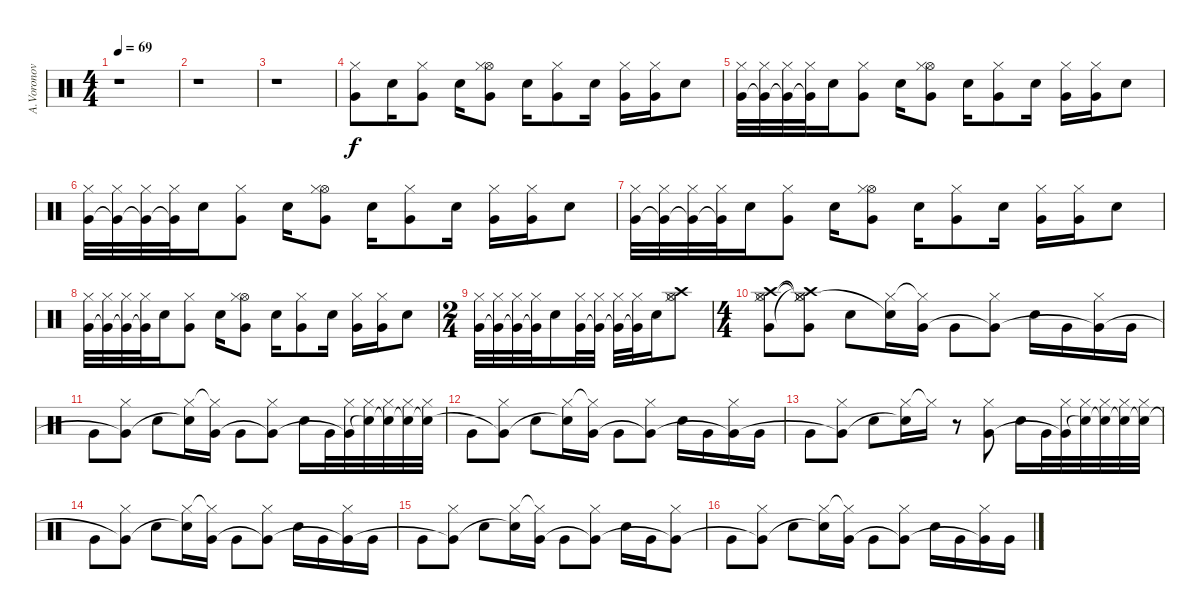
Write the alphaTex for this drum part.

\track ("A.Voronov - Drumzzz" "A.Voronov ") {instrument percussion}
\staff {score}
\articulation defaults
\ts (4 4)
\tempo 69
\clef neutral
\ks c
r.1{dy f} |
r.1 |
r.1 |
("Hi-Hat (closed)" "Very Low Tom (hit)").8 "Electric Snare (hit)".16 ("Hi-Hat (closed)" "Very Low Tom (hit)").8 "Electric Snare (hit)".16 ("Hi-Hat (open)" "Hi-Hat (closed)" "Very Low Tom (hit)").8 "Electric Snare (hit)".16 ("Hi-Hat (closed)" "Very Low Tom (hit)").8 "Electric Snare (hit)".16 ("Hi-Hat (closed)" "Very Low Tom (hit)").16 ("Hi-Hat (closed)" "Very Low Tom (hit)").16 "Electric Snare (hit)".8 |
("Hi-Hat (closed)" "Very Low Tom (hit)").32 ("Hi-Hat (closed)" "Very Low Tom (hit)"{t}).32 ("Hi-Hat (closed)" "Very Low Tom (hit)"{t}).32 ("Hi-Hat (closed)" "Very Low Tom (hit)"{t}).32 "Electric Snare (hit)".16 ("Hi-Hat (closed)" "Very Low Tom (hit)").8 "Electric Snare (hit)".16 ("Hi-Hat (open)" "Hi-Hat (closed)" "Very Low Tom (hit)").8 "Electric Snare (hit)".16 ("Hi-Hat (closed)" "Very Low Tom (hit)").8 "Electric Snare (hit)".16 ("Hi-Hat (closed)" "Very Low Tom (hit)").16 ("Hi-Hat (closed)" "Very Low Tom (hit)").16 "Electric Snare (hit)".8 |
("Hi-Hat (closed)" "Very Low Tom (hit)").32 ("Hi-Hat (closed)" "Very Low Tom (hit)"{t}).32 ("Hi-Hat (closed)" "Very Low Tom (hit)"{t}).32 ("Hi-Hat (closed)" "Very Low Tom (hit)"{t}).32 "Electric Snare (hit)".16 ("Hi-Hat (closed)" "Very Low Tom (hit)").8 "Electric Snare (hit)".16 ("Hi-Hat (open)" "Hi-Hat (closed)" "Very Low Tom (hit)").8 "Electric Snare (hit)".16 ("Hi-Hat (closed)" "Very Low Tom (hit)").8 "Electric Snare (hit)".16 ("Hi-Hat (closed)" "Very Low Tom (hit)").16 ("Hi-Hat (closed)" "Very Low Tom (hit)").16 "Electric Snare (hit)".8 |
("Hi-Hat (closed)" "Very Low Tom (hit)").32 ("Hi-Hat (closed)" "Very Low Tom (hit)"{t}).32 ("Hi-Hat (closed)" "Very Low Tom (hit)"{t}).32 ("Hi-Hat (closed)" "Very Low Tom (hit)"{t}).32 "Electric Snare (hit)".16 ("Hi-Hat (closed)" "Very Low Tom (hit)").8 "Electric Snare (hit)".16 ("Hi-Hat (open)" "Hi-Hat (closed)" "Very Low Tom (hit)").8 "Electric Snare (hit)".16 ("Hi-Hat (closed)" "Very Low Tom (hit)").8 "Electric Snare (hit)".16 ("Hi-Hat (closed)" "Very Low Tom (hit)").16 ("Hi-Hat (closed)" "Very Low Tom (hit)").16 "Electric Snare (hit)".8 |
("Hi-Hat (closed)" "Very Low Tom (hit)").32 ("Hi-Hat (closed)" "Very Low Tom (hit)"{t}).32 ("Hi-Hat (closed)" "Very Low Tom (hit)"{t}).32 ("Hi-Hat (closed)" "Very Low Tom (hit)"{t}).32 "Electric Snare (hit)".16 ("Hi-Hat (closed)" "Very Low Tom (hit)").8 "Electric Snare (hit)".16 ("Hi-Hat (open)" "Hi-Hat (closed)" "Very Low Tom (hit)").8 "Electric Snare (hit)".16 ("Hi-Hat (closed)" "Very Low Tom (hit)").8 "Electric Snare (hit)".16 ("Hi-Hat (closed)" "Very Low Tom (hit)").16 ("Hi-Hat (closed)" "Very Low Tom (hit)").16 "Electric Snare (hit)".8 |
\ts (2 4)
("Hi-Hat (closed)" "Very Low Tom (hit)").32 ("Hi-Hat (closed)" "Very Low Tom (hit)"{t}).32 ("Hi-Hat (closed)" "Very Low Tom (hit)"{t}).32 ("Hi-Hat (closed)" "Very Low Tom (hit)"{t}).32 "Electric Snare (hit)".16 ("Hi-Hat (closed)" "Very Low Tom (hit)").32 ("Hi-Hat (closed)" "Very Low Tom (hit)"{t}).32 ("Hi-Hat (closed)" "Very Low Tom (hit)"{t}).32 ("Hi-Hat (closed)" "Very Low Tom (hit)"{t}).32 "Electric Snare (hit)".16 ("Hi-Hat (open)" "Hi-Hat (closed)" "Crash high (hit)").8 |
\ts (4 4)
("Hi-Hat (open)" "Hi-Hat (closed)" "Crash high (hit)" "Very Low Tom (hit)").8 ("Hi-Hat (closed)" "Hi-Hat (open)"{t} "Hi-Hat (closed)"{t} "Crash high (hit)"{t} "Very Low Tom (hit)").8 "Electric Snare (hit)".8 ("Hi-Hat (closed)" "Electric Snare (hit)"{t}).16 ("Hi-Hat (closed)"{t} "Very Low Tom (hit)").16 "Very Low Tom (hit)".8 ("Hi-Hat (closed)" "Very Low Tom (hit)"{t}).8 "Electric Snare (hit)".16 "Very Low Tom (hit)".16 ("Hi-Hat (closed)" "Very Low Tom (hit)"{t}).16 "Very Low Tom (hit)".16 |
"Very Low Tom (hit)".8 ("Hi-Hat (closed)" "Very Low Tom (hit)"{t}).8 "Electric Snare (hit)".8 ("Hi-Hat (closed)" "Electric Snare (hit)"{t}).16 ("Hi-Hat (closed)"{t} "Very Low Tom (hit)").16 "Very Low Tom (hit)".8 ("Hi-Hat (closed)" "Very Low Tom (hit)"{t}).8 "Electric Snare (hit)".16 "Very Low Tom (hit)".32 ("Hi-Hat (closed)" "Very Low Tom (hit)"{t}).32 ("Hi-Hat (closed)" "Snare (hit)"{t}).32 ("Hi-Hat (closed)" "Snare (hit)"{t}).32 ("Hi-Hat (closed)" "Snare (hit)"{t}).32 ("Hi-Hat (closed)" "Snare (hit)"{t}).32 |
"Very Low Tom (hit)".8 ("Hi-Hat (closed)" "Very Low Tom (hit)"{t}).8 "Electric Snare (hit)".8 ("Hi-Hat (closed)" "Electric Snare (hit)"{t}).16 ("Hi-Hat (closed)"{t} "Very Low Tom (hit)").16 "Very Low Tom (hit)".8 ("Hi-Hat (closed)" "Very Low Tom (hit)"{t}).8 "Electric Snare (hit)".16 "Very Low Tom (hit)".16 ("Hi-Hat (closed)" "Very Low Tom (hit)"{t}).16 "Very Low Tom (hit)".16 |
"Very Low Tom (hit)".8 ("Hi-Hat (closed)" "Very Low Tom (hit)"{t}).8 "Electric Snare (hit)".8 ("Hi-Hat (closed)" "Electric Snare (hit)"{t}).16 "Hi-Hat (closed)"{t}.16 r.8 ("Hi-Hat (closed)" "Very Low Tom (hit)").8 "Electric Snare (hit)".16 "Very Low Tom (hit)".32 ("Hi-Hat (closed)" "Very Low Tom (hit)"{t}).32 ("Hi-Hat (closed)" "Snare (hit)"{t}).32 ("Hi-Hat (closed)" "Snare (hit)"{t}).32 ("Hi-Hat (closed)" "Snare (hit)"{t}).32 ("Hi-Hat (closed)" "Snare (hit)"{t}).32 |
"Very Low Tom (hit)".8 ("Hi-Hat (closed)" "Very Low Tom (hit)"{t}).8 "Electric Snare (hit)".8 ("Hi-Hat (closed)" "Electric Snare (hit)"{t}).16 ("Hi-Hat (closed)"{t} "Very Low Tom (hit)").16 "Very Low Tom (hit)".8 ("Hi-Hat (closed)" "Very Low Tom (hit)"{t}).8 "Electric Snare (hit)".16 "Very Low Tom (hit)".16 ("Hi-Hat (closed)" "Very Low Tom (hit)"{t}).16 "Very Low Tom (hit)".16 |
"Very Low Tom (hit)".8 ("Hi-Hat (closed)" "Very Low Tom (hit)"{t}).8 "Electric Snare (hit)".8 ("Hi-Hat (closed)" "Electric Snare (hit)"{t}).16 ("Hi-Hat (closed)"{t} "Very Low Tom (hit)").16 "Very Low Tom (hit)".8 ("Hi-Hat (closed)" "Very Low Tom (hit)"{t}).8 "Electric Snare (hit)".16 "Very Low Tom (hit)".16 ("Hi-Hat (closed)" "Very Low Tom (hit)"{t}).8 |
"Very Low Tom (hit)".8 ("Hi-Hat (closed)" "Very Low Tom (hit)"{t}).8 "Electric Snare (hit)".8 ("Hi-Hat (closed)" "Electric Snare (hit)"{t}).16 ("Hi-Hat (closed)"{t} "Very Low Tom (hit)").16 "Very Low Tom (hit)".8 ("Hi-Hat (closed)" "Very Low Tom (hit)"{t}).8 "Electric Snare (hit)".16 "Very Low Tom (hit)".16 ("Hi-Hat (closed)" "Very Low Tom (hit)"{t}).16 "Very Low Tom (hit)".16
